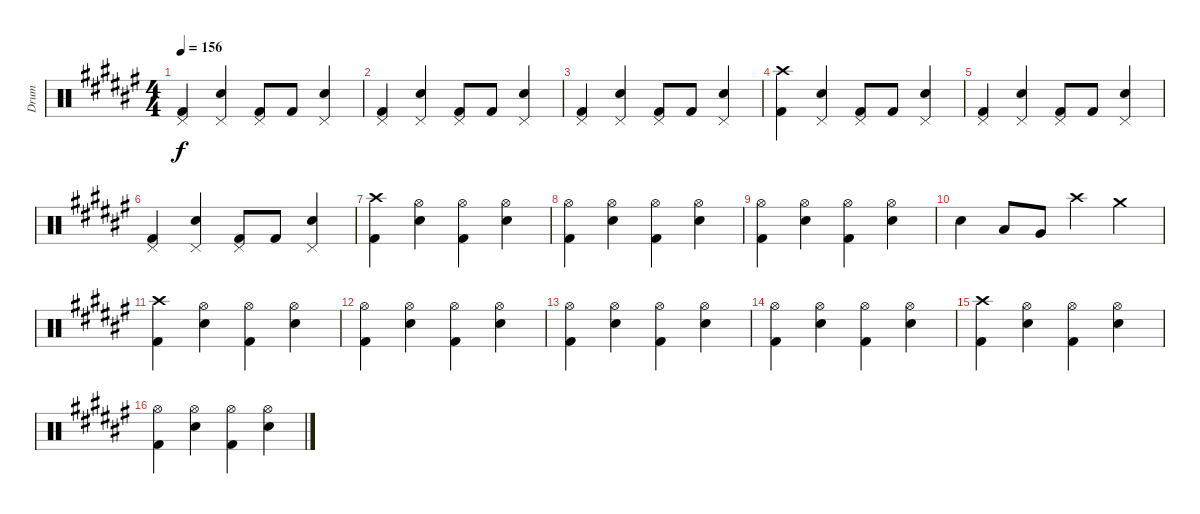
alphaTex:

\track ("Drum" "Drum") {instrument percussion}
\staff {score}
\articulation defaults
\ts (4 4)
\tempo 156
\clef neutral
\ks f#
("Pedal Hi-Hat (hit)" "Kick (hit) 2").4{dy f} ("Pedal Hi-Hat (hit)" "Electric Snare (hit)").4 ("Pedal Hi-Hat (hit)" "Kick (hit) 2").8 "Kick (hit) 2".8 ("Pedal Hi-Hat (hit)" "Electric Snare (hit)").4 |
("Pedal Hi-Hat (hit)" "Kick (hit) 2").4 ("Pedal Hi-Hat (hit)" "Electric Snare (hit)").4 ("Pedal Hi-Hat (hit)" "Kick (hit) 2").8 "Kick (hit) 2".8 ("Pedal Hi-Hat (hit)" "Electric Snare (hit)").4 |
("Pedal Hi-Hat (hit)" "Kick (hit) 2").4 ("Pedal Hi-Hat (hit)" "Electric Snare (hit)").4 ("Pedal Hi-Hat (hit)" "Kick (hit) 2").8 "Kick (hit) 2".8 ("Pedal Hi-Hat (hit)" "Electric Snare (hit)").4 |
("Crash high (hit)" "Kick (hit) 2").4 ("Pedal Hi-Hat (hit)" "Electric Snare (hit)").4 ("Pedal Hi-Hat (hit)" "Kick (hit) 2").8 "Kick (hit) 2".8 ("Pedal Hi-Hat (hit)" "Electric Snare (hit)").4 |
("Pedal Hi-Hat (hit)" "Kick (hit) 2").4 ("Pedal Hi-Hat (hit)" "Electric Snare (hit)").4 ("Pedal Hi-Hat (hit)" "Kick (hit) 2").8 "Kick (hit) 2".8 ("Pedal Hi-Hat (hit)" "Electric Snare (hit)").4 |
("Pedal Hi-Hat (hit)" "Kick (hit) 2").4 ("Pedal Hi-Hat (hit)" "Electric Snare (hit)").4 ("Pedal Hi-Hat (hit)" "Kick (hit) 2").8 "Kick (hit) 2".8 ("Pedal Hi-Hat (hit)" "Electric Snare (hit)").4 |
("Crash high (hit)" "Kick (hit) 2").4 ("Hi-Hat (open)" "Electric Snare (hit)").4 ("Hi-Hat (open)" "Kick (hit) 2").4 ("Hi-Hat (open)" "Electric Snare (hit)").4 |
("Hi-Hat (open)" "Kick (hit) 2").4 ("Hi-Hat (open)" "Electric Snare (hit)").4 ("Hi-Hat (open)" "Kick (hit) 2").4 ("Hi-Hat (open)" "Electric Snare (hit)").4 |
("Hi-Hat (open)" "Kick (hit) 2").4 ("Hi-Hat (open)" "Electric Snare (hit)").4 ("Hi-Hat (open)" "Kick (hit) 2").4 ("Hi-Hat (open)" "Electric Snare (hit)").4 |
"Electric Snare (hit)".4 "Low Tom (hit)".8 "Very Low Tom (hit)".8 "Crash high (hit)".4 "Crash medium (hit)".4 |
("Crash high (hit)" "Kick (hit) 2").4 ("Hi-Hat (open)" "Electric Snare (hit)").4 ("Hi-Hat (open)" "Kick (hit) 2").4 ("Hi-Hat (open)" "Electric Snare (hit)").4 |
("Hi-Hat (open)" "Kick (hit) 2").4 ("Hi-Hat (open)" "Electric Snare (hit)").4 ("Hi-Hat (open)" "Kick (hit) 2").4 ("Hi-Hat (open)" "Electric Snare (hit)").4 |
("Hi-Hat (open)" "Kick (hit) 2").4 ("Hi-Hat (open)" "Electric Snare (hit)").4 ("Hi-Hat (open)" "Kick (hit) 2").4 ("Hi-Hat (open)" "Electric Snare (hit)").4 |
("Hi-Hat (open)" "Kick (hit) 2").4 ("Hi-Hat (open)" "Electric Snare (hit)").4 ("Hi-Hat (open)" "Kick (hit) 2").4 ("Hi-Hat (open)" "Electric Snare (hit)").4 |
("Crash high (hit)" "Kick (hit) 2").4 ("Hi-Hat (open)" "Electric Snare (hit)").4 ("Hi-Hat (open)" "Kick (hit) 2").4 ("Hi-Hat (open)" "Electric Snare (hit)").4 |
("Hi-Hat (open)" "Kick (hit) 2").4 ("Hi-Hat (open)" "Electric Snare (hit)").4 ("Hi-Hat (open)" "Kick (hit) 2").4 ("Hi-Hat (open)" "Electric Snare (hit)").4
